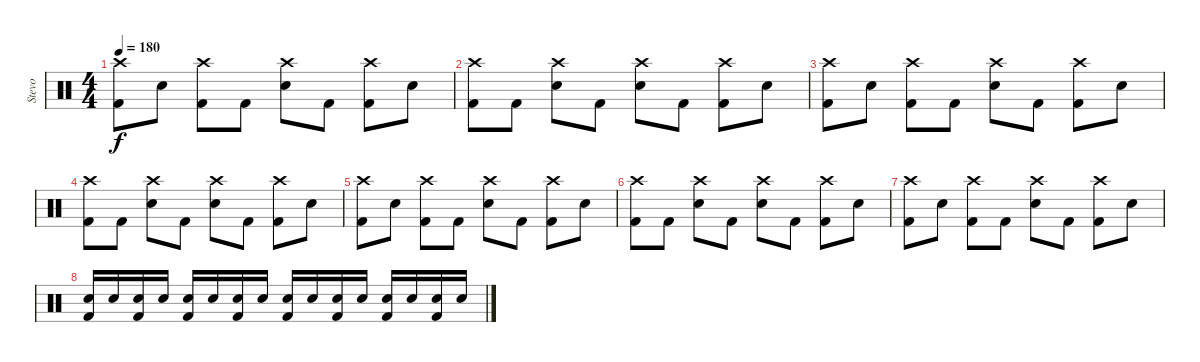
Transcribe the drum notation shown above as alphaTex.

\track ("Stevo" "Stevo") {instrument percussion}
\staff {score}
\articulation defaults
\ts (4 4)
\tempo 180
\clef neutral
\ks c
("Crash high (hit)" "Kick (hit) 2").8{dy f} "Snare (hit) 2".8 ("Crash high (hit)" "Kick (hit) 2").8 "Kick (hit) 2".8 ("Crash high (hit)" "Snare (hit) 2").8 "Kick (hit) 2".8 ("Crash high (hit)" "Kick (hit) 2").8 "Snare (hit) 2".8 |
("Crash high (hit)" "Kick (hit) 2").8 "Kick (hit) 2".8 ("Crash high (hit)" "Snare (hit) 2").8 "Kick (hit) 2".8 ("Crash high (hit)" "Snare (hit) 2").8 "Kick (hit) 2".8 ("Crash high (hit)" "Kick (hit) 2").8 "Snare (hit) 2".8 |
("Crash high (hit)" "Kick (hit) 2").8 "Snare (hit) 2".8 ("Crash high (hit)" "Kick (hit) 2").8 "Kick (hit) 2".8 ("Crash high (hit)" "Snare (hit) 2").8 "Kick (hit) 2".8 ("Crash high (hit)" "Kick (hit) 2").8 "Snare (hit) 2".8 |
("Crash high (hit)" "Kick (hit) 2").8 "Kick (hit) 2".8 ("Crash high (hit)" "Snare (hit) 2").8 "Kick (hit) 2".8 ("Crash high (hit)" "Snare (hit) 2").8 "Kick (hit) 2".8 ("Crash high (hit)" "Kick (hit) 2").8 "Snare (hit) 2".8 |
("Crash high (hit)" "Kick (hit) 2").8 "Snare (hit) 2".8 ("Crash high (hit)" "Kick (hit) 2").8 "Kick (hit) 2".8 ("Crash high (hit)" "Snare (hit) 2").8 "Kick (hit) 2".8 ("Crash high (hit)" "Kick (hit) 2").8 "Snare (hit) 2".8 |
("Crash high (hit)" "Kick (hit) 2").8 "Kick (hit) 2".8 ("Crash high (hit)" "Snare (hit) 2").8 "Kick (hit) 2".8 ("Crash high (hit)" "Snare (hit) 2").8 "Kick (hit) 2".8 ("Crash high (hit)" "Kick (hit) 2").8 "Snare (hit) 2".8 |
("Crash high (hit)" "Kick (hit) 2").8 "Snare (hit) 2".8 ("Crash high (hit)" "Kick (hit) 2").8 "Kick (hit) 2".8 ("Crash high (hit)" "Snare (hit) 2").8 "Kick (hit) 2".8 ("Crash high (hit)" "Kick (hit) 2").8 "Snare (hit) 2".8 |
("Snare (hit) 2" "Kick (hit) 2").16 "Snare (hit) 2".16 ("Snare (hit) 2" "Kick (hit) 2").16 "Snare (hit) 2".16 ("Snare (hit) 2" "Kick (hit) 2").16 "Snare (hit) 2".16 ("Snare (hit) 2" "Kick (hit) 2").16 "Snare (hit) 2".16 ("Snare (hit) 2" "Kick (hit) 2").16 "Snare (hit) 2".16 ("Snare (hit) 2" "Kick (hit) 2").16 "Snare (hit) 2".16 ("Snare (hit) 2" "Kick (hit) 2").16 "Snare (hit) 2".16 ("Snare (hit) 2" "Kick (hit) 2").16 "Snare (hit) 2".16
